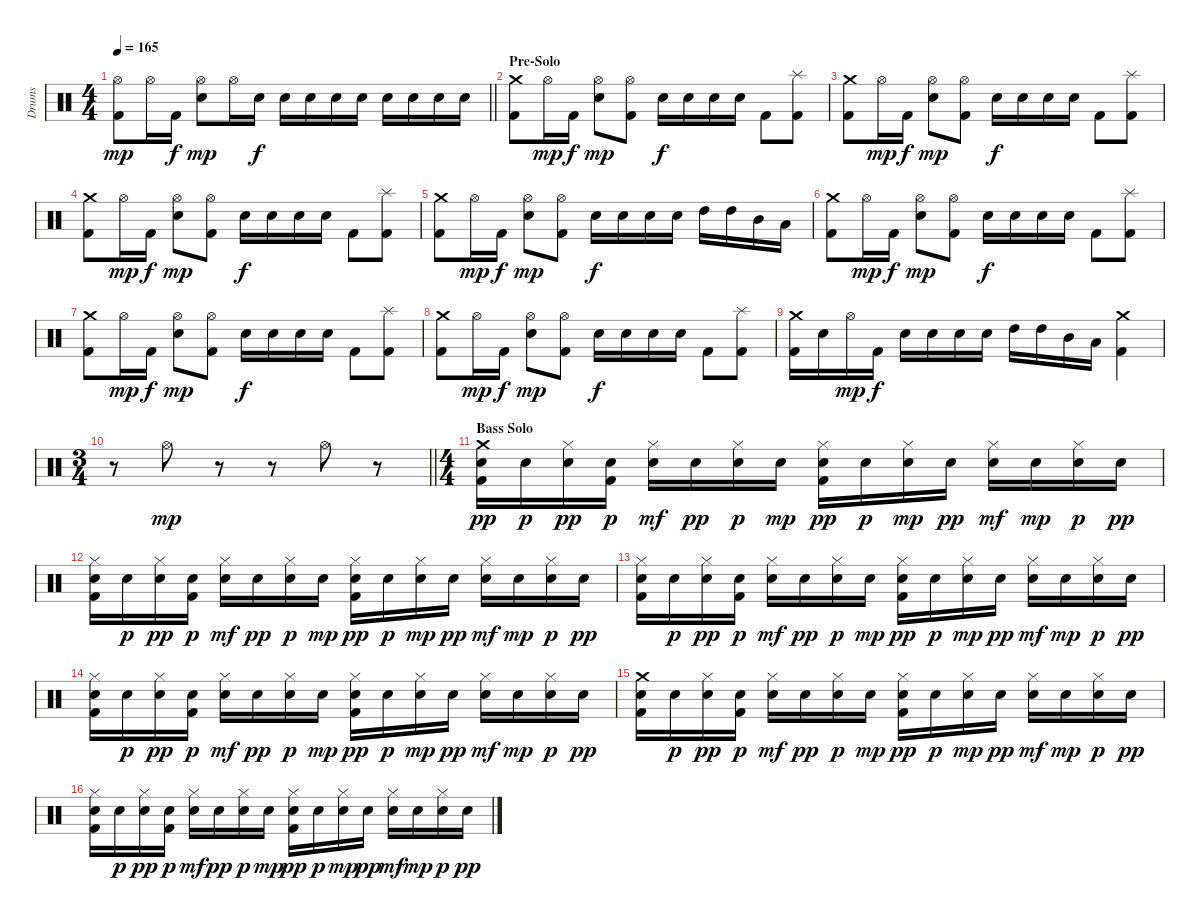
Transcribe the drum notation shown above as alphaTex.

\track ("Drums" "Drums") {instrument percussion}
\staff {score}
\articulation defaults
\ts (4 4)
\tempo 165
\clef neutral
\barLineRight lightlight
\ks c
("Hi-Hat (open)" "Kick (hit) 2").8{dy mp} "Hi-Hat (open)".16 "Kick (hit) 2".16{dy f} ("Hi-Hat (open)" "Snare (hit) 2").8{dy mp} "Hi-Hat (open)".16 "Snare (hit) 2".16{dy f} "Snare (hit) 2".16 "Snare (hit) 2".16 "Snare (hit) 2".16 "Snare (hit) 2".16 "Snare (hit) 2".16 "Snare (hit) 2".16 "Snare (hit) 2".16 "Snare (hit) 2".16 |
\section ("" "Pre-Solo")
("Crash medium (hit)" "Kick (hit) 2").8 "Hi-Hat (open)".16{dy mp} "Kick (hit) 2".16{dy f} ("Hi-Hat (open)" "Snare (hit) 2").8{dy mp} ("Hi-Hat (open)" "Kick (hit) 2").8 "Snare (hit) 2".16{dy f} "Snare (hit) 2".16 "Snare (hit) 2".16 "Snare (hit) 2".16 "Kick (hit) 2".8 ("Splash (hit)" "Kick (hit) 2").8 |
("Crash medium (hit)" "Kick (hit) 2").8 "Hi-Hat (open)".16{dy mp} "Kick (hit) 2".16{dy f} ("Hi-Hat (open)" "Snare (hit) 2").8{dy mp} ("Hi-Hat (open)" "Kick (hit) 2").8 "Snare (hit) 2".16{dy f} "Snare (hit) 2".16 "Snare (hit) 2".16 "Snare (hit) 2".16 "Kick (hit) 2".8 ("Splash (hit)" "Kick (hit) 2").8 |
("Crash medium (hit)" "Kick (hit) 2").8 "Hi-Hat (open)".16{dy mp} "Kick (hit) 2".16{dy f} ("Hi-Hat (open)" "Snare (hit) 2").8{dy mp} ("Hi-Hat (open)" "Kick (hit) 2").8 "Snare (hit) 2".16{dy f} "Snare (hit) 2".16 "Snare (hit) 2".16 "Snare (hit) 2".16 "Kick (hit) 2".8 ("Splash (hit)" "Kick (hit) 2").8 |
("Crash medium (hit)" "Kick (hit) 2").8 "Hi-Hat (open)".16{dy mp} "Kick (hit) 2".16{dy f} ("Hi-Hat (open)" "Snare (hit) 2").8{dy mp} ("Hi-Hat (open)" "Kick (hit) 2").8 "Snare (hit) 2".16{dy f} "Snare (hit) 2".16 "Snare (hit) 2".16 "Snare (hit) 2".16 "High Tom (hit)".16 "High Tom (hit)".16 "Mid Tom (hit)".16 "Low Tom (hit)".16 |
("Crash medium (hit)" "Kick (hit) 2").8 "Hi-Hat (open)".16{dy mp} "Kick (hit) 2".16{dy f} ("Hi-Hat (open)" "Snare (hit) 2").8{dy mp} ("Hi-Hat (open)" "Kick (hit) 2").8 "Snare (hit) 2".16{dy f} "Snare (hit) 2".16 "Snare (hit) 2".16 "Snare (hit) 2".16 "Kick (hit) 2".8 ("Splash (hit)" "Kick (hit) 2").8 |
("Crash medium (hit)" "Kick (hit) 2").8 "Hi-Hat (open)".16{dy mp} "Kick (hit) 2".16{dy f} ("Hi-Hat (open)" "Snare (hit) 2").8{dy mp} ("Hi-Hat (open)" "Kick (hit) 2").8 "Snare (hit) 2".16{dy f} "Snare (hit) 2".16 "Snare (hit) 2".16 "Snare (hit) 2".16 "Kick (hit) 2".8 ("Splash (hit)" "Kick (hit) 2").8 |
("Crash medium (hit)" "Kick (hit) 2").8 "Hi-Hat (open)".16{dy mp} "Kick (hit) 2".16{dy f} ("Hi-Hat (open)" "Snare (hit) 2").8{dy mp} ("Hi-Hat (open)" "Kick (hit) 2").8 "Snare (hit) 2".16{dy f} "Snare (hit) 2".16 "Snare (hit) 2".16 "Snare (hit) 2".16 "Kick (hit) 2".8 ("Splash (hit)" "Kick (hit) 2").8 |
("Crash medium (hit)" "Kick (hit) 2").16 "Snare (hit) 2".16 "Hi-Hat (open)".16{dy mp} "Kick (hit) 2".16{dy f} "Snare (hit) 2".16 "Snare (hit) 2".16 "Snare (hit) 2".16 "Snare (hit) 2".16 "High Tom (hit)".16 "High Tom (hit)".16 "Mid Tom (hit)".16 "Low Tom (hit)".16 ("Crash medium (hit)" "Kick (hit) 2").4 |
\ts (3 4)
\barLineRight lightlight
r.8 "Hi-Hat (open)".8{dy mp} r.8 r.8 "Hi-Hat (open)".8 r.8 |
\ts (4 4)
\section ("" "Bass Solo")
("Crash medium (hit)" "Snare (hit) 2" "Kick (hit) 2").16{dy pp} "Snare (hit) 2".16{dy p} ("Hi-Hat (closed)" "Snare (hit) 2").16{dy pp} ("Snare (hit) 2" "Kick (hit) 2").16{dy p} ("Hi-Hat (closed)" "Snare (hit) 2").16{dy mf} "Snare (hit) 2".16{dy pp} ("Hi-Hat (closed)" "Snare (hit) 2").16{dy p} "Snare (hit) 2".16{dy mp} ("Hi-Hat (closed)" "Snare (hit) 2" "Kick (hit) 2").16{dy pp} "Snare (hit) 2".16{dy p} ("Hi-Hat (closed)" "Snare (hit) 2").16{dy mp} "Snare (hit) 2".16{dy pp} ("Hi-Hat (closed)" "Snare (hit) 2").16{dy mf} "Snare (hit) 2".16{dy mp} ("Hi-Hat (closed)" "Snare (hit) 2").16{dy p} "Snare (hit) 2".16{dy pp} |
("Hi-Hat (closed)" "Snare (hit) 2" "Kick (hit) 2").16 "Snare (hit) 2".16{dy p} ("Hi-Hat (closed)" "Snare (hit) 2").16{dy pp} ("Snare (hit) 2" "Kick (hit) 2").16{dy p} ("Hi-Hat (closed)" "Snare (hit) 2").16{dy mf} "Snare (hit) 2".16{dy pp} ("Hi-Hat (closed)" "Snare (hit) 2").16{dy p} "Snare (hit) 2".16{dy mp} ("Hi-Hat (closed)" "Snare (hit) 2" "Kick (hit) 2").16{dy pp} "Snare (hit) 2".16{dy p} ("Hi-Hat (closed)" "Snare (hit) 2").16{dy mp} "Snare (hit) 2".16{dy pp} ("Hi-Hat (closed)" "Snare (hit) 2").16{dy mf} "Snare (hit) 2".16{dy mp} ("Hi-Hat (closed)" "Snare (hit) 2").16{dy p} "Snare (hit) 2".16{dy pp} |
("Hi-Hat (closed)" "Snare (hit) 2" "Kick (hit) 2").16 "Snare (hit) 2".16{dy p} ("Hi-Hat (closed)" "Snare (hit) 2").16{dy pp} ("Snare (hit) 2" "Kick (hit) 2").16{dy p} ("Hi-Hat (closed)" "Snare (hit) 2").16{dy mf} "Snare (hit) 2".16{dy pp} ("Hi-Hat (closed)" "Snare (hit) 2").16{dy p} "Snare (hit) 2".16{dy mp} ("Hi-Hat (closed)" "Snare (hit) 2" "Kick (hit) 2").16{dy pp} "Snare (hit) 2".16{dy p} ("Hi-Hat (closed)" "Snare (hit) 2").16{dy mp} "Snare (hit) 2".16{dy pp} ("Hi-Hat (closed)" "Snare (hit) 2").16{dy mf} "Snare (hit) 2".16{dy mp} ("Hi-Hat (closed)" "Snare (hit) 2").16{dy p} "Snare (hit) 2".16{dy pp} |
("Hi-Hat (closed)" "Snare (hit) 2" "Kick (hit) 2").16 "Snare (hit) 2".16{dy p} ("Hi-Hat (closed)" "Snare (hit) 2").16{dy pp} ("Snare (hit) 2" "Kick (hit) 2").16{dy p} ("Hi-Hat (closed)" "Snare (hit) 2").16{dy mf} "Snare (hit) 2".16{dy pp} ("Hi-Hat (closed)" "Snare (hit) 2").16{dy p} "Snare (hit) 2".16{dy mp} ("Hi-Hat (closed)" "Snare (hit) 2" "Kick (hit) 2").16{dy pp} "Snare (hit) 2".16{dy p} ("Hi-Hat (closed)" "Snare (hit) 2").16{dy mp} "Snare (hit) 2".16{dy pp} ("Hi-Hat (closed)" "Snare (hit) 2").16{dy mf} "Snare (hit) 2".16{dy mp} ("Hi-Hat (closed)" "Snare (hit) 2").16{dy p} "Snare (hit) 2".16{dy pp} |
("Crash medium (hit)" "Snare (hit) 2" "Kick (hit) 2").16 "Snare (hit) 2".16{dy p} ("Hi-Hat (closed)" "Snare (hit) 2").16{dy pp} ("Snare (hit) 2" "Kick (hit) 2").16{dy p} ("Hi-Hat (closed)" "Snare (hit) 2").16{dy mf} "Snare (hit) 2".16{dy pp} ("Hi-Hat (closed)" "Snare (hit) 2").16{dy p} "Snare (hit) 2".16{dy mp} ("Hi-Hat (closed)" "Snare (hit) 2" "Kick (hit) 2").16{dy pp} "Snare (hit) 2".16{dy p} ("Hi-Hat (closed)" "Snare (hit) 2").16{dy mp} "Snare (hit) 2".16{dy pp} ("Hi-Hat (closed)" "Snare (hit) 2").16{dy mf} "Snare (hit) 2".16{dy mp} ("Hi-Hat (closed)" "Snare (hit) 2").16{dy p} "Snare (hit) 2".16{dy pp} |
("Hi-Hat (closed)" "Snare (hit) 2" "Kick (hit) 2").16 "Snare (hit) 2".16{dy p} ("Hi-Hat (closed)" "Snare (hit) 2").16{dy pp} ("Snare (hit) 2" "Kick (hit) 2").16{dy p} ("Hi-Hat (closed)" "Snare (hit) 2").16{dy mf} "Snare (hit) 2".16{dy pp} ("Hi-Hat (closed)" "Snare (hit) 2").16{dy p} "Snare (hit) 2".16{dy mp} ("Hi-Hat (closed)" "Snare (hit) 2" "Kick (hit) 2").16{dy pp} "Snare (hit) 2".16{dy p} ("Hi-Hat (closed)" "Snare (hit) 2").16{dy mp} "Snare (hit) 2".16{dy pp} ("Hi-Hat (closed)" "Snare (hit) 2").16{dy mf} "Snare (hit) 2".16{dy mp} ("Hi-Hat (closed)" "Snare (hit) 2").16{dy p} "Snare (hit) 2".16{dy pp}
